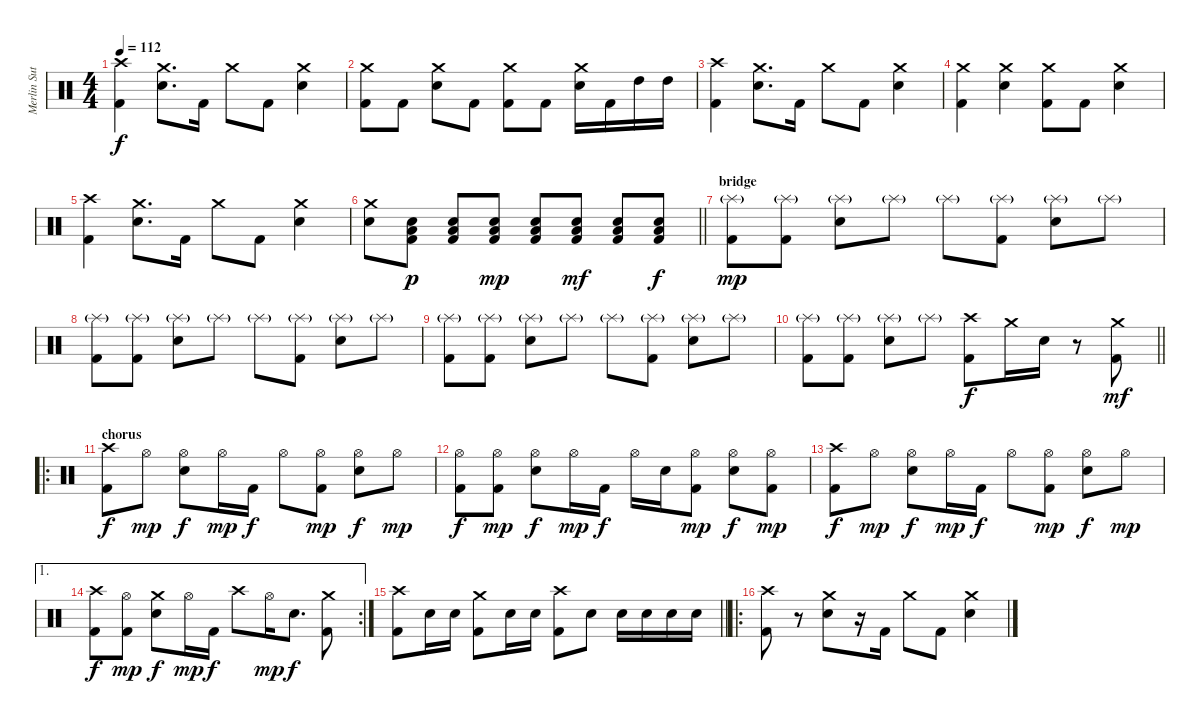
\track ("Merlin Sutter" "Merlin Sut") {instrument percussion}
\staff {score}
\articulation defaults
\ts (4 4)
\tempo 112
\clef neutral
\ks c
("Crash high (hit)" "Kick (hit) 2").4{dy f} ("Crash medium (hit)" "Snare (hit) 2").8{d} "Kick (hit) 2".16 "Crash medium (hit)".8 "Kick (hit) 2".8 ("Crash medium (hit)" "Snare (hit) 2").4 |
("Crash medium (hit)" "Kick (hit) 2").8 "Kick (hit) 2".8 ("Crash medium (hit)" "Snare (hit) 2").8 "Kick (hit) 2".8 ("Crash medium (hit)" "Kick (hit) 2").8 "Kick (hit) 2".8 ("Crash medium (hit)" "Snare (hit) 2").16 "Kick (hit) 2".16 "High Tom (hit)".16 "High Tom (hit)".16 |
("Crash high (hit)" "Kick (hit) 2").4 ("Crash medium (hit)" "Snare (hit) 2").8{d} "Kick (hit) 2".16 "Crash medium (hit)".8 "Kick (hit) 2".8 ("Crash medium (hit)" "Snare (hit) 2").4 |
("Crash medium (hit)" "Kick (hit) 2").4 ("Crash medium (hit)" "Snare (hit) 2").4 ("Crash medium (hit)" "Kick (hit) 2").8 "Kick (hit) 2".8 ("Crash medium (hit)" "Snare (hit) 2").4 |
("Crash high (hit)" "Kick (hit) 2").4 ("Crash medium (hit)" "Snare (hit) 2").8{d} "Kick (hit) 2".16 "Crash medium (hit)".8 "Kick (hit) 2".8 ("Crash medium (hit)" "Snare (hit) 2").4 |
\barLineRight lightlight
("Crash medium (hit)" "Snare (hit) 2").8 ("Low Tom (hit)" "Snare (hit) 2" "Kick (hit) 2").8{dy p} ("Low Tom (hit)" "Snare (hit) 2" "Kick (hit) 2").8 ("Low Tom (hit)" "Snare (hit) 2" "Kick (hit) 2").8{dy mp} ("Low Tom (hit)" "Snare (hit) 2" "Kick (hit) 2").8 ("Low Tom (hit)" "Snare (hit) 2" "Kick (hit) 2").8{dy mf} ("Low Tom (hit)" "Snare (hit) 2" "Kick (hit) 2").8 ("Low Tom (hit)" "Snare (hit) 2" "Kick (hit) 2").8{dy f} |
\section ("" "bridge")
("Splash (hit)"{g} "Kick (hit) 2").8{dy mp} ("Splash (hit)"{g} "Kick (hit) 2").8 ("Splash (hit)"{g} "Snare (hit) 2").8 "Splash (hit)"{g}.8 "Splash (hit)"{g}.8 ("Splash (hit)"{g} "Kick (hit) 2").8 ("Splash (hit)"{g} "Snare (hit) 2").8 "Splash (hit)"{g}.8 |
("Splash (hit)"{g} "Kick (hit) 2").8 ("Splash (hit)"{g} "Kick (hit) 2").8 ("Splash (hit)"{g} "Snare (hit) 2").8 "Splash (hit)"{g}.8 "Splash (hit)"{g}.8 ("Splash (hit)"{g} "Kick (hit) 2").8 ("Splash (hit)"{g} "Snare (hit) 2").8 "Splash (hit)"{g}.8 |
("Splash (hit)"{g} "Kick (hit) 2").8 ("Splash (hit)"{g} "Kick (hit) 2").8 ("Splash (hit)"{g} "Snare (hit) 2").8 "Splash (hit)"{g}.8 "Splash (hit)"{g}.8 ("Splash (hit)"{g} "Kick (hit) 2").8 ("Splash (hit)"{g} "Snare (hit) 2").8 "Splash (hit)"{g}.8 |
\barLineRight lightlight
("Splash (hit)"{g} "Kick (hit) 2").8 ("Splash (hit)"{g} "Kick (hit) 2").8 ("Splash (hit)"{g} "Snare (hit) 2").8 "Splash (hit)"{g}.8 ("Crash high (hit)" "Kick (hit) 2").8{dy f} "Crash medium (hit)".16 "Snare (hit) 2".16 r.8 ("Crash medium (hit)" "Kick (hit) 2").8{dy mf} |
\ro
\section ("" "chorus")
("Crash high (hit)" "Kick (hit) 2").8{dy f} "Hi-Hat (open)".8{dy mp} ("Hi-Hat (open)" "Snare (hit) 2").8{dy f} "Hi-Hat (open)".16{dy mp} "Kick (hit) 2".16{dy f} "Hi-Hat (open)".8 ("Hi-Hat (open)" "Kick (hit) 2").8{dy mp} ("Hi-Hat (open)" "Snare (hit) 2").8{dy f} "Hi-Hat (open)".8{dy mp} |
("Hi-Hat (open)" "Kick (hit) 2").8{dy f} ("Hi-Hat (open)" "Kick (hit) 2").8{dy mp} ("Hi-Hat (open)" "Snare (hit) 2").8{dy f} "Hi-Hat (open)".16{dy mp} "Kick (hit) 2".16{dy f} "Hi-Hat (open)".16 "Snare (hit) 2".16 ("Hi-Hat (open)" "Kick (hit) 2").8{dy mp} ("Hi-Hat (open)" "Snare (hit) 2").8{dy f} ("Hi-Hat (open)" "Kick (hit) 2").8{dy mp} |
("Crash high (hit)" "Kick (hit) 2").8{dy f} "Hi-Hat (open)".8{dy mp} ("Hi-Hat (open)" "Snare (hit) 2").8{dy f} "Hi-Hat (open)".16{dy mp} "Kick (hit) 2".16{dy f} "Hi-Hat (open)".8 ("Hi-Hat (open)" "Kick (hit) 2").8{dy mp} ("Hi-Hat (open)" "Snare (hit) 2").8{dy f} "Hi-Hat (open)".8{dy mp} |
\ae 1
\rc 2
("Crash high (hit)" "Kick (hit) 2").8{dy f} ("Hi-Hat (open)" "Kick (hit) 2").8{dy mp} ("Crash medium (hit)" "Snare (hit) 2").8{dy f} "Hi-Hat (open)".16{dy mp} "Kick (hit) 2".16{dy f} "Crash high (hit)".8 "Hi-Hat (open)".16{dy mp} "Snare (hit) 2".8{d dy f} ("Crash medium (hit)" "Kick (hit) 2").8 |
\barLineRight lightlight
("Crash high (hit)" "Kick (hit) 2").8 "Snare (hit) 2".16 "Snare (hit) 2".16 ("Crash medium (hit)" "Kick (hit) 2").8 "Snare (hit) 2".16 "Snare (hit) 2".16 ("Crash high (hit)" "Kick (hit) 2").8 "Snare (hit) 2".8 "Snare (hit) 2".16 "Snare (hit) 2".16 "Snare (hit) 2".16 "Snare (hit) 2".16 |
\ro
\section ("" "")
("Crash high (hit)" "Kick (hit) 2").8 r.8 ("Crash medium (hit)" "Snare (hit) 2").8 r.16 "Kick (hit) 2".16 "Crash medium (hit)".8 "Kick (hit) 2".8 ("Crash medium (hit)" "Snare (hit) 2").4
